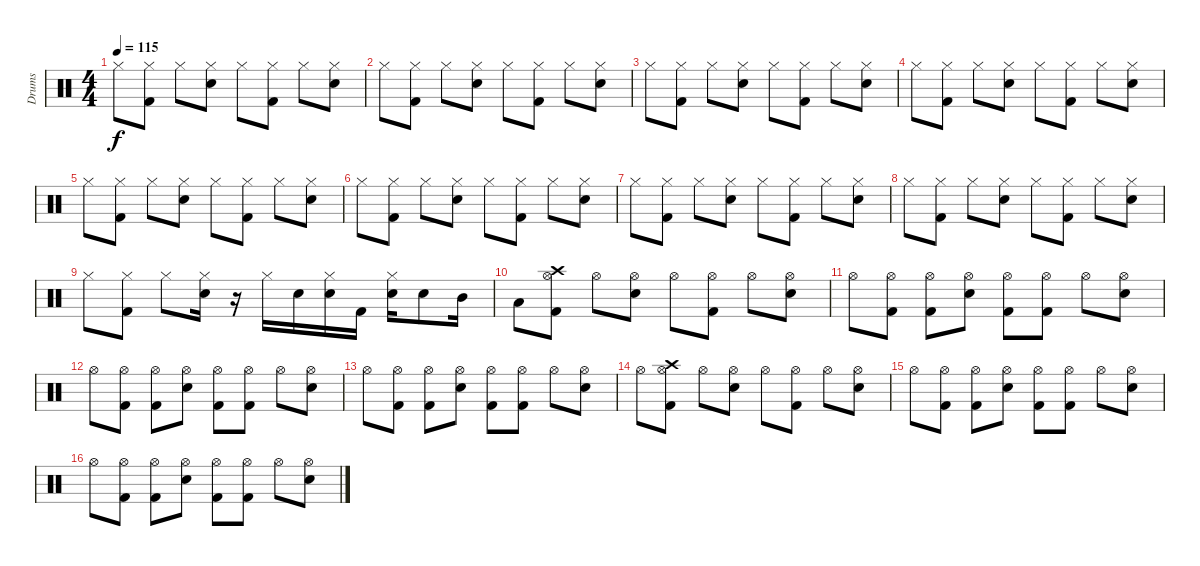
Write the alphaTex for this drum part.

\track ("Drums" "Drums") {instrument percussion}
\staff {score}
\articulation defaults
\ts (4 4)
\tempo 115
\clef neutral
\ks c "Hi-Hat (closed)".8{dy f}
("Kick (hit) 2" "Hi-Hat (closed)").8 "Hi-Hat (closed)".8 ("Snare (hit) 2" "Hi-Hat (closed)").8 "Hi-Hat (closed)".8 ("Kick (hit) 2" "Hi-Hat (closed)").8 "Hi-Hat (closed)".8 ("Snare (hit) 2" "Hi-Hat (closed)").8 |
"Hi-Hat (closed)".8 ("Kick (hit) 2" "Hi-Hat (closed)").8 "Hi-Hat (closed)".8 ("Snare (hit) 2" "Hi-Hat (closed)").8 "Hi-Hat (closed)".8 ("Kick (hit) 2" "Hi-Hat (closed)").8 "Hi-Hat (closed)".8 ("Snare (hit) 2" "Hi-Hat (closed)").8 |
"Hi-Hat (closed)".8 ("Kick (hit) 2" "Hi-Hat (closed)").8 "Hi-Hat (closed)".8 ("Snare (hit) 2" "Hi-Hat (closed)").8 "Hi-Hat (closed)".8 ("Kick (hit) 2" "Hi-Hat (closed)").8 "Hi-Hat (closed)".8 ("Snare (hit) 2" "Hi-Hat (closed)").8 |
"Hi-Hat (closed)".8 ("Kick (hit) 2" "Hi-Hat (closed)").8 "Hi-Hat (closed)".8 ("Snare (hit) 2" "Hi-Hat (closed)").8 "Hi-Hat (closed)".8 ("Kick (hit) 2" "Hi-Hat (closed)").8 "Hi-Hat (closed)".8 ("Snare (hit) 2" "Hi-Hat (closed)").8 |
"Hi-Hat (closed)".8 ("Kick (hit) 2" "Hi-Hat (closed)").8 "Hi-Hat (closed)".8 ("Snare (hit) 2" "Hi-Hat (closed)").8 "Hi-Hat (closed)".8 ("Kick (hit) 2" "Hi-Hat (closed)").8 "Hi-Hat (closed)".8 ("Snare (hit) 2" "Hi-Hat (closed)").8 |
"Hi-Hat (closed)".8 ("Kick (hit) 2" "Hi-Hat (closed)").8 "Hi-Hat (closed)".8 ("Snare (hit) 2" "Hi-Hat (closed)").8 "Hi-Hat (closed)".8 ("Kick (hit) 2" "Hi-Hat (closed)").8 "Hi-Hat (closed)".8 ("Snare (hit) 2" "Hi-Hat (closed)").8 |
"Hi-Hat (closed)".8 ("Kick (hit) 2" "Hi-Hat (closed)").8 "Hi-Hat (closed)".8 ("Snare (hit) 2" "Hi-Hat (closed)").8 "Hi-Hat (closed)".8 ("Kick (hit) 2" "Hi-Hat (closed)").8 "Hi-Hat (closed)".8 ("Snare (hit) 2" "Hi-Hat (closed)").8 |
"Hi-Hat (closed)".8 ("Kick (hit) 2" "Hi-Hat (closed)").8 "Hi-Hat (closed)".8 ("Snare (hit) 2" "Hi-Hat (closed)").8 "Hi-Hat (closed)".8 ("Kick (hit) 2" "Hi-Hat (closed)").8 "Hi-Hat (closed)".8 ("Snare (hit) 2" "Hi-Hat (closed)").8 |
"Hi-Hat (closed)".8 ("Kick (hit) 2" "Hi-Hat (closed)").8 "Hi-Hat (closed)".8 ("Snare (hit) 2" "Hi-Hat (closed)").16 r.16 "Hi-Hat (closed)".16 "Snare (hit) 2".16 ("Snare (hit) 2" "Hi-Hat (closed)").16 "Kick (hit) 2".16 ("Snare (hit) 2" "Hi-Hat (closed)").16 "Snare (hit) 2".8 "Mid Tom (hit)".16 |
"Low Tom (hit)".8 ("Kick (hit) 2" "Hi-Hat (open)" "Crash high (hit)").8 "Hi-Hat (open)".8 ("Snare (hit) 2" "Hi-Hat (open)").8 "Hi-Hat (open)".8 ("Kick (hit) 2" "Hi-Hat (open)").8 "Hi-Hat (open)".8 ("Snare (hit) 2" "Hi-Hat (open)").8 |
"Hi-Hat (open)".8 ("Kick (hit) 2" "Hi-Hat (open)").8 ("Kick (hit) 2" "Hi-Hat (open)").8 ("Snare (hit) 2" "Hi-Hat (open)").8 ("Kick (hit) 2" "Hi-Hat (open)").8 ("Kick (hit) 2" "Hi-Hat (open)").8 "Hi-Hat (open)".8 ("Snare (hit) 2" "Hi-Hat (open)").8 |
"Hi-Hat (open)".8 ("Kick (hit) 2" "Hi-Hat (open)").8 ("Kick (hit) 2" "Hi-Hat (open)").8 ("Snare (hit) 2" "Hi-Hat (open)").8 ("Kick (hit) 2" "Hi-Hat (open)").8 ("Kick (hit) 2" "Hi-Hat (open)").8 "Hi-Hat (open)".8 ("Snare (hit) 2" "Hi-Hat (open)").8 |
"Hi-Hat (open)".8 ("Kick (hit) 2" "Hi-Hat (open)").8 ("Kick (hit) 2" "Hi-Hat (open)").8 ("Snare (hit) 2" "Hi-Hat (open)").8 ("Kick (hit) 2" "Hi-Hat (open)").8 ("Kick (hit) 2" "Hi-Hat (open)").8 "Hi-Hat (open)".8 ("Snare (hit) 2" "Hi-Hat (open)").8 |
"Hi-Hat (open)".8 ("Kick (hit) 2" "Hi-Hat (open)" "Crash high (hit)").8 "Hi-Hat (open)".8 ("Snare (hit) 2" "Hi-Hat (open)").8 "Hi-Hat (open)".8 ("Kick (hit) 2" "Hi-Hat (open)").8 "Hi-Hat (open)".8 ("Snare (hit) 2" "Hi-Hat (open)").8 |
"Hi-Hat (open)".8 ("Kick (hit) 2" "Hi-Hat (open)").8 ("Kick (hit) 2" "Hi-Hat (open)").8 ("Snare (hit) 2" "Hi-Hat (open)").8 ("Kick (hit) 2" "Hi-Hat (open)").8 ("Kick (hit) 2" "Hi-Hat (open)").8 "Hi-Hat (open)".8 ("Snare (hit) 2" "Hi-Hat (open)").8 |
"Hi-Hat (open)".8 ("Kick (hit) 2" "Hi-Hat (open)").8 ("Kick (hit) 2" "Hi-Hat (open)").8 ("Snare (hit) 2" "Hi-Hat (open)").8 ("Kick (hit) 2" "Hi-Hat (open)").8 ("Kick (hit) 2" "Hi-Hat (open)").8 "Hi-Hat (open)".8 ("Snare (hit) 2" "Hi-Hat (open)").8
